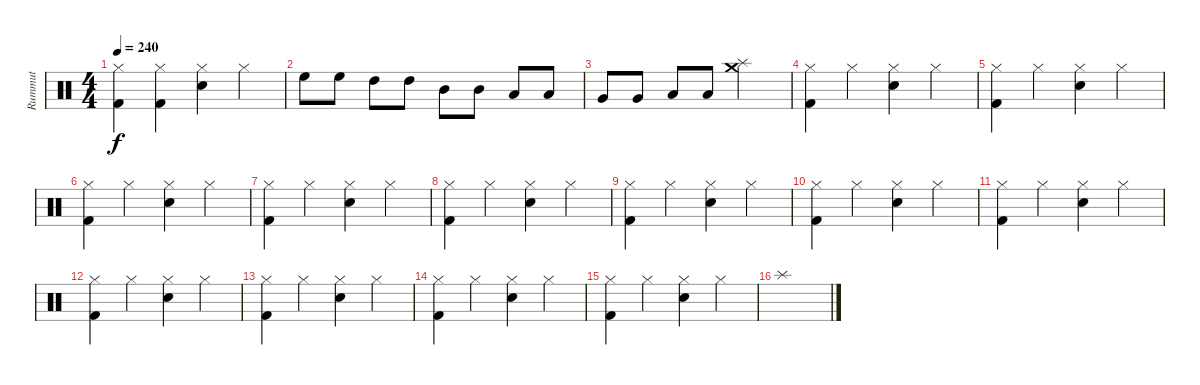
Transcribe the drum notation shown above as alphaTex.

\track ("Rummut" "Rummut") {instrument percussion}
\staff
\articulation defaults
\ts (4 4)
\tempo 240
\clef neutral
\ks c
("Hi-Hat (closed)" "Kick (hit) 2").4{dy f} ("Hi-Hat (closed)" "Kick (hit) 2").4 ("Hi-Hat (closed)" "Electric Snare (hit)").4 "Hi-Hat (closed)".4 |
"High Floor Tom (hit)".8 "High Floor Tom (hit)".8 "High Tom (hit)".8 "High Tom (hit)".8 "Mid Tom (hit)".8 "Mid Tom (hit)".8 "Low Tom (hit)".8 "Low Tom (hit)".8 |
"Very Low Tom (hit)".8 "Very Low Tom (hit)".8 "Low Floor Tom (hit)".8 "Low Floor Tom (hit)".8 ("Crash medium (hit)" "Splash (hit)").2 |
("Hi-Hat (closed)" "Kick (hit) 2").4 "Hi-Hat (closed)".4 ("Hi-Hat (closed)" "Electric Snare (hit)").4 "Hi-Hat (closed)".4 |
("Hi-Hat (closed)" "Kick (hit) 2").4 "Hi-Hat (closed)".4 ("Hi-Hat (closed)" "Electric Snare (hit)").4 "Hi-Hat (closed)".4 |
("Hi-Hat (closed)" "Kick (hit) 2").4 "Hi-Hat (closed)".4 ("Hi-Hat (closed)" "Electric Snare (hit)").4 "Hi-Hat (closed)".4 |
("Hi-Hat (closed)" "Kick (hit) 2").4 "Hi-Hat (closed)".4 ("Hi-Hat (closed)" "Electric Snare (hit)").4 "Hi-Hat (closed)".4 |
("Hi-Hat (closed)" "Kick (hit) 2").4 "Hi-Hat (closed)".4 ("Hi-Hat (closed)" "Electric Snare (hit)").4 "Hi-Hat (closed)".4 |
("Hi-Hat (closed)" "Kick (hit) 2").4 "Hi-Hat (closed)".4 ("Hi-Hat (closed)" "Electric Snare (hit)").4 "Hi-Hat (closed)".4 |
("Hi-Hat (closed)" "Kick (hit) 2").4 "Hi-Hat (closed)".4 ("Hi-Hat (closed)" "Electric Snare (hit)").4 "Hi-Hat (closed)".4 |
("Hi-Hat (closed)" "Kick (hit) 2").4 "Hi-Hat (closed)".4 ("Hi-Hat (closed)" "Electric Snare (hit)").4 "Hi-Hat (closed)".4 |
("Hi-Hat (closed)" "Kick (hit) 2").4 "Hi-Hat (closed)".4 ("Hi-Hat (closed)" "Electric Snare (hit)").4 "Hi-Hat (closed)".4 |
("Hi-Hat (closed)" "Kick (hit) 2").4 "Hi-Hat (closed)".4 ("Hi-Hat (closed)" "Electric Snare (hit)").4 "Hi-Hat (closed)".4 |
("Hi-Hat (closed)" "Kick (hit) 2").4 "Hi-Hat (closed)".4 ("Hi-Hat (closed)" "Electric Snare (hit)").4 "Hi-Hat (closed)".4 |
("Hi-Hat (closed)" "Kick (hit) 2").4 "Hi-Hat (closed)".4 ("Hi-Hat (closed)" "Electric Snare (hit)").4 "Hi-Hat (closed)".4 |
"Splash (hit)".1
